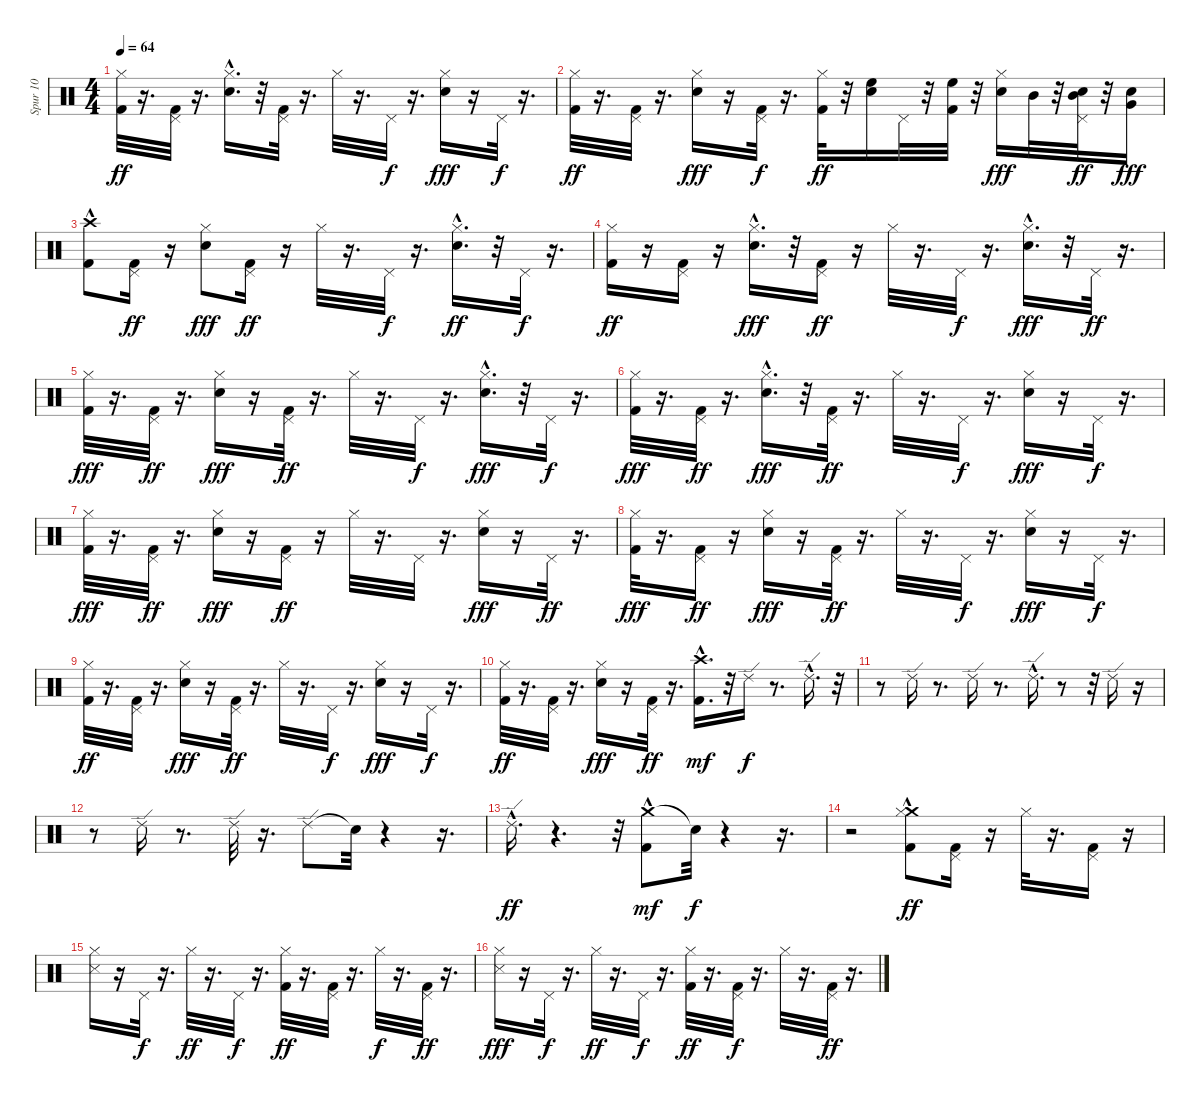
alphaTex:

\track ("Spur 10" "Spur 10") {instrument percussion}
\staff {score}
\articulation defaults
\ts (4 4)
\tempo 64
\clef neutral
\ks c
("Hi-Hat (closed)" "Kick (hit) 2").32{dy ff} r.16{d} ("Pedal Hi-Hat (hit)" "Kick (hit) 2").32 r.16{d} ("Hi-Hat (closed)" "Snare (hit) 2"{hac}).16{d} r.32 ("Pedal Hi-Hat (hit)" "Kick (hit) 2").32 r.16{d} "Hi-Hat (closed)".32 r.16{d} "Pedal Hi-Hat (hit)".32{dy f} r.16{d} ("Hi-Hat (closed)" "Snare (hit) 2").16{dy fff} r.16 "Pedal Hi-Hat (hit)".32{dy f} r.16{d} |
("Hi-Hat (closed)" "Kick (hit) 2").32{dy ff} r.16{d} ("Pedal Hi-Hat (hit)" "Kick (hit) 2").32 r.16{d} ("Hi-Hat (closed)" "Snare (hit) 2").16{dy fff} r.16 ("Pedal Hi-Hat (hit)" "Kick (hit) 2").32{dy f} r.16{d} ("Hi-Hat (closed)" "Kick (hit) 2").32{dy ff} r.32 ("High Floor Tom (hit)" "Snare (hit) 2").16 "Pedal Hi-Hat (hit)".32 r.32 ("High Floor Tom (hit)" "Kick (hit) 2").32 r.32 ("Hi-Hat (closed)" "Snare (hit) 2").16{dy fff} "Mid Tom (hit)".32 r.32 ("Mid Tom (hit)" "Pedal Hi-Hat (hit)" "Snare (hit) 2").32{dy ff} r.32 ("Very Low Tom (hit)" "Snare (hit) 2").16{dy fff} |
("Crash high (hit)"{hac} "Kick (hit) 2").8 ("Pedal Hi-Hat (hit)" "Kick (hit) 2").16{dy ff} r.16 ("Hi-Hat (closed)" "Snare (hit) 2").8{dy fff} ("Pedal Hi-Hat (hit)" "Kick (hit) 2").16{dy ff} r.16 "Hi-Hat (closed)".32 r.16{d} "Pedal Hi-Hat (hit)".32{dy f} r.16{d} ("Hi-Hat (closed)" "Snare (hit) 2"{hac}).16{d dy ff} r.32 "Pedal Hi-Hat (hit)".32{dy f} r.16{d} |
("Hi-Hat (closed)" "Kick (hit) 2").16{dy ff} r.16 ("Pedal Hi-Hat (hit)" "Kick (hit) 2").16 r.16 ("Hi-Hat (closed)" "Snare (hit) 2"{hac}).16{d dy fff} r.32 ("Pedal Hi-Hat (hit)" "Kick (hit) 2").16{dy ff} r.16 "Hi-Hat (closed)".32 r.16{d} "Pedal Hi-Hat (hit)".32{dy f} r.16{d} ("Hi-Hat (closed)" "Snare (hit) 2"{hac}).16{d dy fff} r.32 "Pedal Hi-Hat (hit)".32{dy ff} r.16{d} |
("Hi-Hat (closed)" "Kick (hit) 2").32{dy fff} r.16{d} ("Pedal Hi-Hat (hit)" "Kick (hit) 2").32{dy ff} r.16{d} ("Hi-Hat (closed)" "Snare (hit) 2").16{dy fff} r.16 ("Pedal Hi-Hat (hit)" "Kick (hit) 2").32{dy ff} r.16{d} "Hi-Hat (closed)".32 r.16{d} "Pedal Hi-Hat (hit)".32{dy f} r.16{d} ("Hi-Hat (closed)" "Snare (hit) 2"{hac}).16{d dy fff} r.32 "Pedal Hi-Hat (hit)".32{dy f} r.16{d} |
("Hi-Hat (closed)" "Kick (hit) 2").32{dy fff} r.16{d} ("Pedal Hi-Hat (hit)" "Kick (hit) 2").32{dy ff} r.16{d} ("Hi-Hat (closed)" "Snare (hit) 2"{hac}).16{d dy fff} r.32 ("Pedal Hi-Hat (hit)" "Kick (hit) 2").32{dy ff} r.16{d} "Hi-Hat (closed)".32 r.16{d} "Pedal Hi-Hat (hit)".32{dy f} r.16{d} ("Hi-Hat (closed)" "Snare (hit) 2").16{dy fff} r.16 "Pedal Hi-Hat (hit)".32{dy f} r.16{d} |
("Hi-Hat (closed)" "Kick (hit) 2").32{dy fff} r.16{d} ("Pedal Hi-Hat (hit)" "Kick (hit) 2").32{dy ff} r.16{d} ("Hi-Hat (closed)" "Snare (hit) 2").16{dy fff} r.16 ("Pedal Hi-Hat (hit)" "Kick (hit) 2").16{dy ff} r.16 "Hi-Hat (closed)".32 r.16{d} "Pedal Hi-Hat (hit)".32 r.16{d} ("Hi-Hat (closed)" "Snare (hit) 2").16{dy fff} r.16 "Pedal Hi-Hat (hit)".32{dy ff} r.16{d} |
("Hi-Hat (closed)" "Kick (hit) 2").32{dy fff} r.16{d} ("Pedal Hi-Hat (hit)" "Kick (hit) 2").16{dy ff} r.16 ("Hi-Hat (closed)" "Snare (hit) 2").16{dy fff} r.16 ("Pedal Hi-Hat (hit)" "Kick (hit) 2").32{dy ff} r.16{d} "Hi-Hat (closed)".32 r.16{d} "Pedal Hi-Hat (hit)".32{dy f} r.16{d} ("Hi-Hat (closed)" "Snare (hit) 2").16{dy fff} r.16 "Pedal Hi-Hat (hit)".32{dy f} r.16{d} |
("Hi-Hat (closed)" "Kick (hit) 2").32{dy ff} r.16{d} ("Pedal Hi-Hat (hit)" "Kick (hit) 2").32 r.16{d} ("Hi-Hat (closed)" "Snare (hit) 2").16{dy fff} r.16 ("Pedal Hi-Hat (hit)" "Kick (hit) 2").32{dy ff} r.16{d} "Hi-Hat (closed)".32 r.16{d} "Pedal Hi-Hat (hit)".32{dy f} r.16{d} ("Hi-Hat (closed)" "Snare (hit) 2").16{dy fff} r.16 "Pedal Hi-Hat (hit)".32{dy f} r.16{d} |
("Hi-Hat (closed)" "Kick (hit) 2").32{dy ff} r.16{d} ("Pedal Hi-Hat (hit)" "Kick (hit) 2").32 r.16{d} ("Hi-Hat (closed)" "Snare (hit) 2").16{dy fff} r.16 ("Pedal Hi-Hat (hit)" "Kick (hit) 2").32{dy ff} r.16{d} ("Crash high (hit)" "Kick (hit) 2"{hac}).16{d dy mf} r.32 "Ride (edge) 2".16{dy f} r.8{d} "Ride (edge) 2"{hac}.16{d} r.32 |
r.8 "Ride (edge) 2".16 r.8{d} "Ride (edge) 2".16 r.8{d} "Ride (edge) 2"{hac}.16{d} r.8 r.32 "Ride (edge) 2".16 r.16 |
r.8 "Ride (edge) 2".16 r.8{d} "Ride (edge) 2".32 r.16{d} "Ride (edge) 2".8 "Snare (hit)"{t}.32 r.4 r.16{d} |
"Ride (edge) 2"{hac}.16{d dy ff} r.4{d} r.32 ("Crash medium (hit)"{hac} "Kick (hit) 2").8{dy mf} "Snare (hit)"{t}.32{dy f} r.4 r.16{d} |
r.2 ("Crash medium (hit)"{hac} "Hi-Hat (closed)" "Kick (hit) 2").8{dy ff} ("Pedal Hi-Hat (hit)" "Kick (hit) 2").16 r.16 "Hi-Hat (closed)".32 r.16{d} ("Pedal Hi-Hat (hit)" "Kick (hit) 2").16 r.16 |
("Hi-Hat (closed)" "Snare (side stick) 3").16 r.16 "Pedal Hi-Hat (hit)".32{dy f} r.16{d} "Hi-Hat (closed)".32{dy ff} r.16{d} "Pedal Hi-Hat (hit)".32{dy f} r.16{d} ("Hi-Hat (closed)" "Kick (hit) 2").32{dy ff} r.16{d} ("Pedal Hi-Hat (hit)" "Kick (hit) 2").32 r.16{d} "Hi-Hat (closed)".32{dy f} r.16{d} ("Pedal Hi-Hat (hit)" "Kick (hit) 2").32{dy ff} r.16{d} |
("Hi-Hat (closed)" "Snare (side stick) 3").16{dy fff} r.16 "Pedal Hi-Hat (hit)".32{dy f} r.16{d} "Hi-Hat (closed)".32{dy ff} r.16{d} "Pedal Hi-Hat (hit)".32{dy f} r.16{d} ("Hi-Hat (closed)" "Kick (hit) 2").32{dy ff} r.16{d} ("Pedal Hi-Hat (hit)" "Kick (hit) 2").32{dy f} r.16{d} "Hi-Hat (closed)".32 r.16{d} ("Pedal Hi-Hat (hit)" "Kick (hit) 2").32{dy ff} r.16{d}
